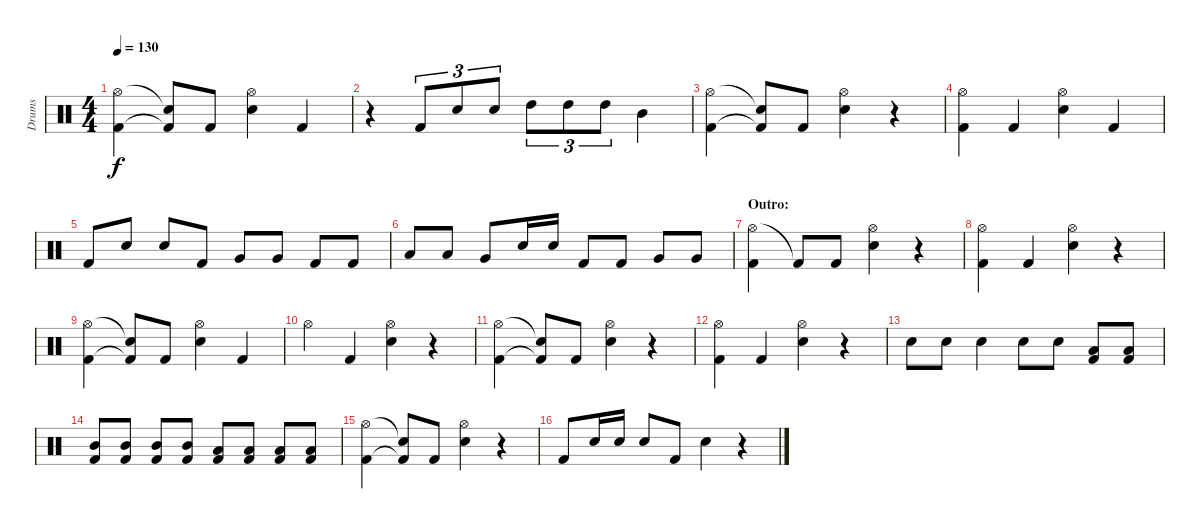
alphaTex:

\track ("Drums" "Drums") {instrument percussion}
\staff {score}
\articulation defaults
\ts (4 4)
\tempo 130
\clef neutral
\ks c
("Hi-Hat (open)" "Kick (hit) 2").4{dy f} ("Snare (hit)"{t} "Kick (hit) 2"{t}).8 "Kick (hit) 2".8 ("Hi-Hat (open)" "Electric Snare (hit)").4 "Kick (hit) 2".4 |
r.4 "Kick (hit) 2".8{tu (3 2)} "Electric Snare (hit)".8{tu (3 2)} "Electric Snare (hit)".8{tu (3 2)} "High Tom (hit)".8{tu (3 2)} "High Tom (hit)".8{tu (3 2)} "High Tom (hit)".8{tu (3 2)} "Mid Tom (hit)".4 |
("Hi-Hat (open)" "Kick (hit) 2").4 ("Snare (hit)"{t} "Kick (hit) 2"{t}).8 "Kick (hit) 2".8 ("Hi-Hat (open)" "Electric Snare (hit)").4 r.4 |
("Hi-Hat (open)" "Kick (hit) 2").4 "Kick (hit) 2".4 ("Hi-Hat (open)" "Electric Snare (hit)").4 "Kick (hit) 2".4 |
"Kick (hit) 2".8 "Electric Snare (hit)".8 "Electric Snare (hit)".8 "Kick (hit) 2".8 "Very Low Tom (hit)".8 "Very Low Tom (hit)".8 "Kick (hit) 2".8 "Kick (hit) 2".8 |
"Low Tom (hit)".8 "Low Tom (hit)".8 "Very Low Tom (hit)".8 "Electric Snare (hit)".16 "Electric Snare (hit)".16 "Kick (hit) 2".8 "Kick (hit) 2".8 "Very Low Tom (hit)".8 "Very Low Tom (hit)".8 |
\section ("" "Outro:")
("Hi-Hat (open)" "Kick (hit) 2").4 "Kick (hit) 2"{t}.8 "Kick (hit) 2".8 ("Hi-Hat (open)" "Electric Snare (hit)").4 r.4 |
("Hi-Hat (open)" "Kick (hit) 2").4 "Kick (hit) 2".4 ("Hi-Hat (open)" "Electric Snare (hit)").4 r.4 |
("Hi-Hat (open)" "Kick (hit) 2").4 ("Snare (hit)"{t} "Kick (hit) 2"{t}).8 "Kick (hit) 2".8 ("Hi-Hat (open)" "Electric Snare (hit)").4 "Kick (hit) 2".4 |
"Hi-Hat (open)".4 "Kick (hit) 2".4 ("Hi-Hat (open)" "Electric Snare (hit)").4 r.4 |
("Hi-Hat (open)" "Kick (hit) 2").4 ("Snare (hit)"{t} "Kick (hit) 2"{t}).8 "Kick (hit) 2".8 ("Hi-Hat (open)" "Electric Snare (hit)").4 r.4 |
("Hi-Hat (open)" "Kick (hit) 2").4 "Kick (hit) 2".4 ("Hi-Hat (open)" "Electric Snare (hit)").4 r.4 |
"Electric Snare (hit)".8 "Electric Snare (hit)".8 "Electric Snare (hit)".4 "Electric Snare (hit)".8 "Electric Snare (hit)".8 ("Low Tom (hit)" "Kick (hit) 2").8 ("Low Tom (hit)" "Kick (hit) 2").8 |
("Mid Tom (hit)" "Kick (hit) 2").8 ("Mid Tom (hit)" "Kick (hit) 2").8 ("Mid Tom (hit)" "Kick (hit) 2").8 ("Mid Tom (hit)" "Kick (hit) 2").8 ("Low Tom (hit)" "Kick (hit) 2").8 ("Low Tom (hit)" "Kick (hit) 2").8 ("Low Tom (hit)" "Kick (hit) 2").8 ("Low Tom (hit)" "Kick (hit) 2").8 |
("Hi-Hat (open)" "Kick (hit) 2").4{volume 5} ("Snare (hit)"{t} "Kick (hit) 2"{t}).8 "Kick (hit) 2".8 ("Hi-Hat (open)" "Electric Snare (hit)").4 r.4 |
"Kick (hit) 2".8 "Electric Snare (hit)".16 "Electric Snare (hit)".16 "Electric Snare (hit)".8 "Kick (hit) 2".8 "Electric Snare (hit)".4 r.4
